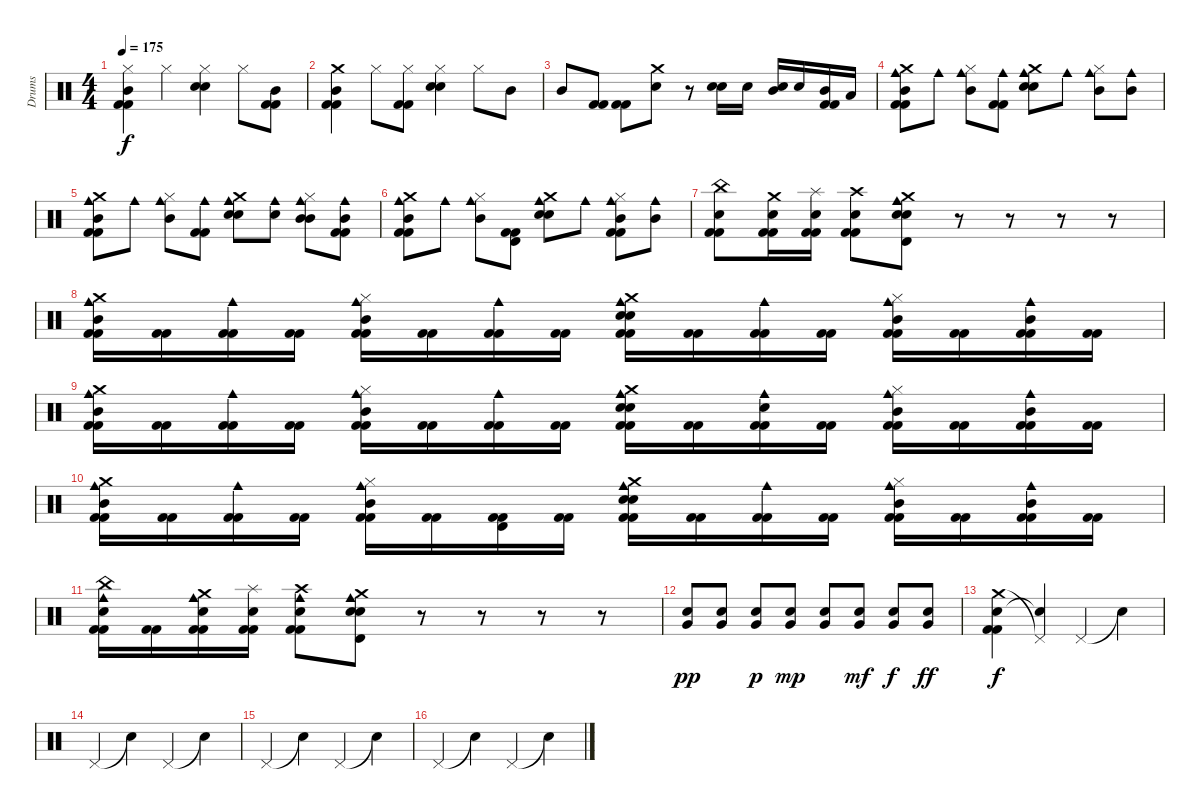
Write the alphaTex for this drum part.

\track ("Drums" "Drums") {instrument percussion}
\staff {score}
\articulation defaults
\ts (4 4)
\tempo 175
\clef neutral
\ks c
("Hi-Hat (closed)" "Mid Tom (hit)" "Kick (hit) 2" "Kick (hit) 2").4{dy f} "Hi-Hat (closed)".4 ("Hi-Hat (closed)" "Snare (hit) 2" "Electric Snare (hit)").4 "Hi-Hat (closed)".8 ("Mid Tom (hit)" "Kick (hit) 2" "Kick (hit) 2").8 |
("Crash medium (hit)" "Mid Tom (hit)" "Kick (hit) 2" "Kick (hit) 2").4 "Hi-Hat (closed)".8 ("Hi-Hat (closed)" "Kick (hit) 2" "Kick (hit) 2").8 ("Hi-Hat (closed)" "Snare (hit) 2" "Electric Snare (hit)").4 "Hi-Hat (closed)".8 "Mid Tom (hit)".8 |
"Mid Tom (hit)".8 ("Kick (hit) 2" "Kick (hit) 2").8 ("Kick (hit) 2" "Kick (hit) 2").8 ("Crash medium (hit)" "Snare (hit) 2").8 r.8 ("Snare (hit) 2" "Electric Snare (hit)").16 "Electric Snare (hit)".16 ("Mid Tom (hit)" "Snare (hit) 2").16 "Snare (hit) 2".16 ("Mid Tom (hit)" "Kick (hit) 2" "Kick (hit) 2").16 "Low Tom (hit)".16 |
("Crash medium (hit)" "Mid Tom (hit)" "Cowbell medium (hit)" "Kick (hit) 2" "Kick (hit) 2").8 "Cowbell medium (hit)".8 ("Hi-Hat (closed)" "Mid Tom (hit)" "Cowbell medium (hit)").8 ("Cowbell medium (hit)" "Kick (hit) 2" "Kick (hit) 2").8 ("Crash medium (hit)" "Snare (hit) 2" "Electric Snare (hit)" "Cowbell medium (hit)").8 "Cowbell medium (hit)".8 ("Hi-Hat (closed)" "Mid Tom (hit)" "Cowbell medium (hit)").8 ("Mid Tom (hit)" "Cowbell medium (hit)").8 |
("Crash medium (hit)" "Mid Tom (hit)" "Cowbell medium (hit)" "Kick (hit) 2" "Kick (hit) 2").8 "Cowbell medium (hit)".8 ("Hi-Hat (closed)" "Mid Tom (hit)" "Cowbell medium (hit)").8 ("Cowbell medium (hit)" "Kick (hit) 2" "Kick (hit) 2").8 ("Crash medium (hit)" "Snare (hit) 2" "Electric Snare (hit)" "Cowbell medium (hit)").8 ("Snare (hit) 2" "Cowbell medium (hit)").8 ("Hi-Hat (closed)" "Mid Tom (hit)" "Mid Tom (hit)" "Cowbell medium (hit)").8 ("Cowbell medium (hit)" "Mid Tom (hit)" "Kick (hit) 2" "Kick (hit) 2").8 |
("Crash medium (hit)" "Mid Tom (hit)" "Cowbell medium (hit)" "Kick (hit) 2" "Kick (hit) 2").8 "Cowbell medium (hit)".8 ("Hi-Hat (closed)" "Mid Tom (hit)" "Cowbell medium (hit)").8 ("Timbale high (hit)" "Kick (hit) 2" "Kick (hit) 2").8 ("Crash medium (hit)" "Snare (hit) 2" "Electric Snare (hit)" "Cowbell medium (hit)").8 "Cowbell medium (hit)".8 ("Hi-Hat (closed)" "Mid Tom (hit)" "Cowbell medium (hit)" "Kick (hit) 2" "Kick (hit) 2").8 ("Mid Tom (hit)" "Cowbell medium (hit)").8 |
("China (hit)" "Electric Snare (hit)" "Kick (hit) 2" "Kick (hit) 2").8 ("Crash medium (hit)" "Electric Snare (hit)" "Kick (hit) 2" "Kick (hit) 2").16 ("Splash (hit)" "Electric Snare (hit)" "Kick (hit) 2" "Kick (hit) 2").16 ("Crash high (hit)" "Electric Snare (hit)" "Kick (hit) 2" "Kick (hit) 2").8 ("Crash medium (hit)" "Electric Snare (hit)" "Snare (hit) 2" "Cowbell medium (hit)" "Timbale high (hit)").8 r.8 r.8 r.8 r.8 |
("Crash medium (hit)" "Cowbell medium (hit)" "Mid Tom (hit)" "Kick (hit) 2" "Kick (hit) 2").16 ("Kick (hit) 2" "Kick (hit) 2").16 ("Cowbell medium (hit)" "Kick (hit) 2" "Kick (hit) 2").16 ("Kick (hit) 2" "Kick (hit) 2").16 ("Hi-Hat (closed)" "Cowbell medium (hit)" "Mid Tom (hit)" "Kick (hit) 2" "Kick (hit) 2").16 ("Kick (hit) 2" "Kick (hit) 2").16 ("Cowbell medium (hit)" "Kick (hit) 2" "Kick (hit) 2").16 ("Kick (hit) 2" "Kick (hit) 2").16 ("Crash medium (hit)" "Kick (hit) 2" "Snare (hit) 2" "Cowbell medium (hit)" "Electric Snare (hit)" "Kick (hit) 2").16 ("Kick (hit) 2" "Kick (hit) 2").16 ("Cowbell medium (hit)" "Kick (hit) 2" "Kick (hit) 2").16 ("Kick (hit) 2" "Kick (hit) 2").16 ("Hi-Hat (closed)" "Cowbell medium (hit)" "Mid Tom (hit)" "Kick (hit) 2" "Kick (hit) 2").16 ("Kick (hit) 2" "Kick (hit) 2").16 ("Cowbell medium (hit)" "Mid Tom (hit)" "Kick (hit) 2" "Kick (hit) 2").16 ("Kick (hit) 2" "Kick (hit) 2").16 |
("Crash medium (hit)" "Cowbell medium (hit)" "Mid Tom (hit)" "Kick (hit) 2" "Kick (hit) 2").16 ("Kick (hit) 2" "Kick (hit) 2").16 ("Cowbell medium (hit)" "Kick (hit) 2" "Kick (hit) 2").16 ("Kick (hit) 2" "Kick (hit) 2").16 ("Hi-Hat (closed)" "Cowbell medium (hit)" "Mid Tom (hit)" "Kick (hit) 2" "Kick (hit) 2").16 ("Kick (hit) 2" "Kick (hit) 2").16 ("Cowbell medium (hit)" "Kick (hit) 2" "Kick (hit) 2").16 ("Kick (hit) 2" "Kick (hit) 2").16 ("Crash medium (hit)" "Electric Snare (hit)" "Snare (hit) 2" "Cowbell medium (hit)" "Kick (hit) 2" "Kick (hit) 2").16 ("Kick (hit) 2" "Kick (hit) 2").16 ("Snare (hit) 2" "Cowbell medium (hit)" "Kick (hit) 2" "Kick (hit) 2").16 ("Kick (hit) 2" "Kick (hit) 2").16 ("Hi-Hat (closed)" "Mid Tom (hit)" "Cowbell medium (hit)" "Kick (hit) 2" "Kick (hit) 2").16 ("Kick (hit) 2" "Kick (hit) 2").16 ("Mid Tom (hit)" "Cowbell medium (hit)" "Kick (hit) 2" "Kick (hit) 2").16 ("Kick (hit) 2" "Kick (hit) 2").16 |
("Crash medium (hit)" "Mid Tom (hit)" "Cowbell medium (hit)" "Kick (hit) 2" "Kick (hit) 2").16 ("Kick (hit) 2" "Kick (hit) 2").16 ("Cowbell medium (hit)" "Kick (hit) 2" "Kick (hit) 2").16 ("Kick (hit) 2" "Kick (hit) 2").16 ("Hi-Hat (closed)" "Mid Tom (hit)" "Cowbell medium (hit)" "Kick (hit) 2" "Kick (hit) 2").16 ("Kick (hit) 2" "Kick (hit) 2").16 ("Timbale high (hit)" "Kick (hit) 2" "Kick (hit) 2").16 ("Kick (hit) 2" "Kick (hit) 2").16 ("Crash medium (hit)" "Electric Snare (hit)" "Snare (hit) 2" "Cowbell medium (hit)" "Kick (hit) 2" "Kick (hit) 2").16 ("Kick (hit) 2" "Kick (hit) 2").16 ("Cowbell medium (hit)" "Kick (hit) 2" "Kick (hit) 2").16 ("Kick (hit) 2" "Kick (hit) 2").16 ("Hi-Hat (closed)" "Mid Tom (hit)" "Cowbell medium (hit)" "Kick (hit) 2" "Kick (hit) 2").16 ("Kick (hit) 2" "Kick (hit) 2").16 ("Mid Tom (hit)" "Cowbell medium (hit)" "Kick (hit) 2" "Kick (hit) 2").16 ("Kick (hit) 2" "Kick (hit) 2").16 |
("China (hit)" "Electric Snare (hit)" "Cowbell medium (hit)" "Kick (hit) 2" "Kick (hit) 2").16 ("Kick (hit) 2" "Kick (hit) 2").16 ("Crash medium (hit)" "Electric Snare (hit)" "Cowbell medium (hit)" "Kick (hit) 2" "Kick (hit) 2").16 ("Splash (hit)" "Electric Snare (hit)" "Kick (hit) 2" "Kick (hit) 2").16 ("Crash high (hit)" "Electric Snare (hit)" "Cowbell medium (hit)" "Kick (hit) 2" "Kick (hit) 2").8 ("Crash medium (hit)" "Electric Snare (hit)" "Snare (hit) 2" "Cowbell medium (hit)" "Timbale high (hit)").8 r.8 r.8 r.8 r.8 |
("Electric Snare (hit)" "Very Low Tom (hit)").8{dy pp} ("Electric Snare (hit)" "Very Low Tom (hit)").8 ("Electric Snare (hit)" "Very Low Tom (hit)").8{dy p} ("Electric Snare (hit)" "Very Low Tom (hit)").8{dy mp} ("Electric Snare (hit)" "Very Low Tom (hit)").8 ("Electric Snare (hit)" "Very Low Tom (hit)").8{dy mf} ("Electric Snare (hit)" "Very Low Tom (hit)").8{dy f} ("Electric Snare (hit)" "Very Low Tom (hit)").8{dy ff} |
("Crash medium (hit)" "Electric Snare (hit)" "Kick (hit) 2" "Kick (hit) 2").4{dy f} ("Pedal Hi-Hat (hit)"{t} "Snare (hit)"{t}).4 "Pedal Hi-Hat (hit)".4 "Snare (hit)"{t}.4 |
"Pedal Hi-Hat (hit)".4 "Snare (hit)"{t}.4 "Pedal Hi-Hat (hit)".4 "Snare (hit)"{t}.4 |
"Pedal Hi-Hat (hit)".4 "Snare (hit)"{t}.4 "Pedal Hi-Hat (hit)".4 "Snare (hit)"{t}.4 |
"Pedal Hi-Hat (hit)".4 "Snare (hit)"{t}.4 "Pedal Hi-Hat (hit)".4 "Snare (hit)"{t}.4
